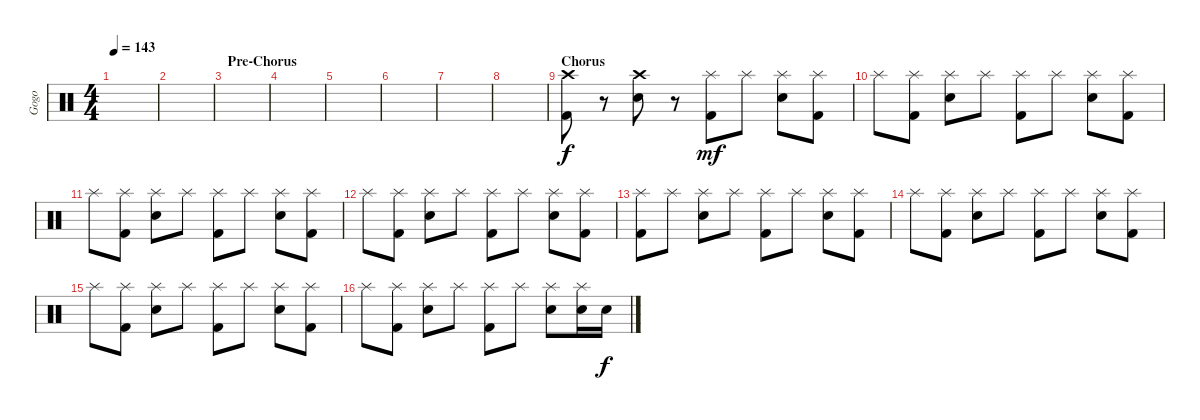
\track ("Gogo" "Gogo") {instrument percussion}
\staff {score}
\articulation defaults
\ts (4 4)
\tempo 143
\clef neutral
\ks c
|
|
\section ("" "Pre-Chorus")
|
|
|
|
|
|
\section ("" "Chorus")
("Crash high (hit)" "Kick (hit) 2").8 r.8 ("Crash high (hit)" "Electric Snare (hit)").8 r.8 ("Splash (hit)" "Kick (hit) 2").8{dy mf} "Splash (hit)".8 ("Splash (hit)" "Electric Snare (hit)").8 ("Splash (hit)" "Kick (hit) 2").8 |
"Splash (hit)".8 ("Splash (hit)" "Kick (hit) 2").8 ("Splash (hit)" "Electric Snare (hit)").8 "Splash (hit)".8 ("Splash (hit)" "Kick (hit) 2").8 "Splash (hit)".8 ("Splash (hit)" "Electric Snare (hit)").8 ("Splash (hit)" "Kick (hit) 2").8 |
"Splash (hit)".8 ("Splash (hit)" "Kick (hit) 2").8 ("Splash (hit)" "Electric Snare (hit)").8 "Splash (hit)".8 ("Splash (hit)" "Kick (hit) 2").8 "Splash (hit)".8 ("Splash (hit)" "Electric Snare (hit)").8 ("Splash (hit)" "Kick (hit) 2").8 |
"Splash (hit)".8 ("Splash (hit)" "Kick (hit) 2").8 ("Splash (hit)" "Electric Snare (hit)").8 "Splash (hit)".8 ("Splash (hit)" "Kick (hit) 2").8 "Splash (hit)".8 ("Splash (hit)" "Electric Snare (hit)").8 ("Splash (hit)" "Kick (hit) 2").8 |
("Splash (hit)" "Kick (hit) 2").8 "Splash (hit)".8 ("Splash (hit)" "Electric Snare (hit)").8 "Splash (hit)".8 ("Splash (hit)" "Kick (hit) 2").8 "Splash (hit)".8 ("Splash (hit)" "Electric Snare (hit)").8 ("Splash (hit)" "Kick (hit) 2").8 |
"Splash (hit)".8 ("Splash (hit)" "Kick (hit) 2").8 ("Splash (hit)" "Electric Snare (hit)").8 "Splash (hit)".8 ("Splash (hit)" "Kick (hit) 2").8 "Splash (hit)".8 ("Splash (hit)" "Electric Snare (hit)").8 ("Splash (hit)" "Kick (hit) 2").8 |
"Splash (hit)".8 ("Splash (hit)" "Kick (hit) 2").8 ("Splash (hit)" "Electric Snare (hit)").8 "Splash (hit)".8 ("Splash (hit)" "Kick (hit) 2").8 "Splash (hit)".8 ("Splash (hit)" "Electric Snare (hit)").8 ("Splash (hit)" "Kick (hit) 2").8 |
"Splash (hit)".8 ("Splash (hit)" "Kick (hit) 2").8 ("Splash (hit)" "Electric Snare (hit)").8 "Splash (hit)".8 ("Splash (hit)" "Kick (hit) 2").8 "Splash (hit)".8 ("Splash (hit)" "Electric Snare (hit)").8 ("Splash (hit)" "Electric Snare (hit)").16 "Electric Snare (hit)".16{dy f}
